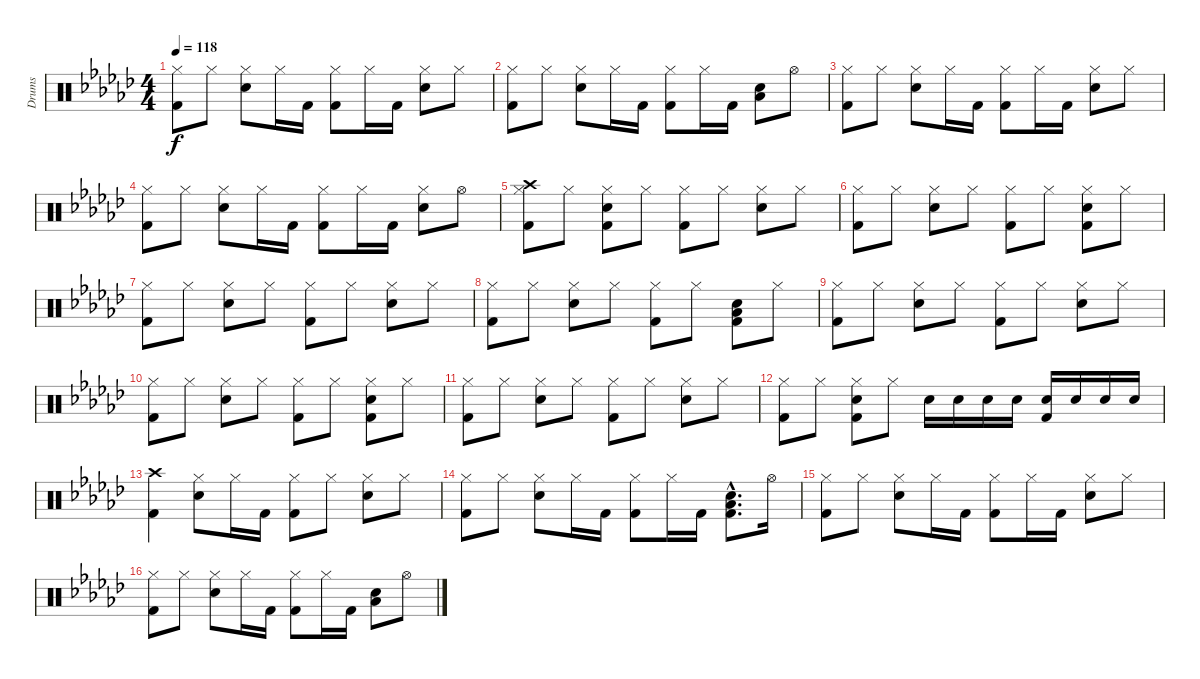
\track ("Drums" "Drums") {instrument percussion}
\staff {score}
\articulation defaults
\ts (4 4)
\tempo 118
\clef neutral
\ks ebminor
("Hi-Hat (closed)" "Kick (hit) 2").8{dy f} "Hi-Hat (closed)".8 ("Hi-Hat (closed)" "Electric Snare (hit)").8 "Hi-Hat (closed)".16 "Kick (hit) 2".16 ("Hi-Hat (closed)" "Kick (hit) 2").8 "Hi-Hat (closed)".16 "Kick (hit) 2".16 ("Hi-Hat (closed)" "Electric Snare (hit)").8 "Hi-Hat (closed)".8 |
("Hi-Hat (closed)" "Kick (hit) 2").8 "Hi-Hat (closed)".8 ("Hi-Hat (closed)" "Electric Snare (hit)").8 "Hi-Hat (closed)".16 "Kick (hit) 2".16 ("Hi-Hat (closed)" "Kick (hit) 2").8 "Hi-Hat (closed)".16 "Kick (hit) 2".16 ("Electric Snare (hit)" "Low Tom (hit)").8 "Hi-Hat (open)".8 |
("Hi-Hat (closed)" "Kick (hit) 2").8 "Hi-Hat (closed)".8 ("Hi-Hat (closed)" "Electric Snare (hit)").8 "Hi-Hat (closed)".16 "Kick (hit) 2".16 ("Hi-Hat (closed)" "Kick (hit) 2").8 "Hi-Hat (closed)".16 "Kick (hit) 2".16 ("Hi-Hat (closed)" "Electric Snare (hit)").8 "Hi-Hat (closed)".8 |
("Hi-Hat (closed)" "Kick (hit) 2").8 "Hi-Hat (closed)".8 ("Hi-Hat (closed)" "Electric Snare (hit)").8 "Hi-Hat (closed)".16 "Kick (hit) 2".16 ("Hi-Hat (closed)" "Kick (hit) 2").8 "Hi-Hat (closed)".16 "Kick (hit) 2".16 ("Hi-Hat (closed)" "Electric Snare (hit)").8 "Hi-Hat (open)".8 |
("Hi-Hat (closed)" "Crash high (hit)" "Kick (hit) 2").8 "Hi-Hat (closed)".8 ("Hi-Hat (closed)" "Electric Snare (hit)" "Kick (hit) 2").8 "Hi-Hat (closed)".8 ("Hi-Hat (closed)" "Kick (hit) 2").8 "Hi-Hat (closed)".8 ("Hi-Hat (closed)" "Electric Snare (hit)").8 "Hi-Hat (closed)".8 |
("Hi-Hat (closed)" "Kick (hit) 2").8 "Hi-Hat (closed)".8 ("Hi-Hat (closed)" "Electric Snare (hit)").8 "Hi-Hat (closed)".8 ("Hi-Hat (closed)" "Kick (hit) 2").8 "Hi-Hat (closed)".8 ("Hi-Hat (closed)" "Electric Snare (hit)" "Kick (hit) 2").8 "Hi-Hat (closed)".8 |
("Hi-Hat (closed)" "Kick (hit) 2").8 "Hi-Hat (closed)".8 ("Hi-Hat (closed)" "Electric Snare (hit)").8 "Hi-Hat (closed)".8 ("Hi-Hat (closed)" "Kick (hit) 2").8 "Hi-Hat (closed)".8 ("Hi-Hat (closed)" "Electric Snare (hit)").8 "Hi-Hat (closed)".8 |
("Hi-Hat (closed)" "Kick (hit) 2").8 "Hi-Hat (closed)".8 ("Hi-Hat (closed)" "Electric Snare (hit)").8 "Hi-Hat (closed)".8 ("Hi-Hat (closed)" "Kick (hit) 2").8 "Hi-Hat (closed)".8 ("Electric Snare (hit)" "Low Tom (hit)" "Kick (hit) 2").8 "Hi-Hat (closed)".8 |
("Hi-Hat (closed)" "Kick (hit) 2").8 "Hi-Hat (closed)".8 ("Hi-Hat (closed)" "Electric Snare (hit)").8 "Hi-Hat (closed)".8 ("Hi-Hat (closed)" "Kick (hit) 2").8 "Hi-Hat (closed)".8 ("Hi-Hat (closed)" "Electric Snare (hit)").8 "Hi-Hat (closed)".8 |
("Hi-Hat (closed)" "Kick (hit) 2").8 "Hi-Hat (closed)".8 ("Hi-Hat (closed)" "Electric Snare (hit)").8 "Hi-Hat (closed)".8 ("Hi-Hat (closed)" "Kick (hit) 2").8 "Hi-Hat (closed)".8 ("Hi-Hat (closed)" "Electric Snare (hit)" "Kick (hit) 2").8 "Hi-Hat (closed)".8 |
("Hi-Hat (closed)" "Kick (hit) 2").8 "Hi-Hat (closed)".8 ("Hi-Hat (closed)" "Electric Snare (hit)").8 "Hi-Hat (closed)".8 ("Hi-Hat (closed)" "Kick (hit) 2").8 "Hi-Hat (closed)".8 ("Hi-Hat (closed)" "Electric Snare (hit)").8 "Hi-Hat (closed)".8 |
("Hi-Hat (closed)" "Kick (hit) 2").8 "Hi-Hat (closed)".8 ("Hi-Hat (closed)" "Electric Snare (hit)" "Kick (hit) 2").8 "Hi-Hat (closed)".8 "Electric Snare (hit)".16 "Electric Snare (hit)".16 "Electric Snare (hit)".16 "Electric Snare (hit)".16 ("Electric Snare (hit)" "Kick (hit) 2").16 "Electric Snare (hit)".16 "Electric Snare (hit)".16 "Electric Snare (hit)".16 |
("Crash high (hit)" "Kick (hit) 2").4 ("Hi-Hat (closed)" "Electric Snare (hit)").8 "Hi-Hat (closed)".16 "Kick (hit) 2".16 ("Hi-Hat (closed)" "Kick (hit) 2").8 "Hi-Hat (closed)".8 ("Hi-Hat (closed)" "Electric Snare (hit)").8 "Hi-Hat (closed)".8 |
("Hi-Hat (closed)" "Kick (hit) 2").8 "Hi-Hat (closed)".8 ("Hi-Hat (closed)" "Electric Snare (hit)").8 "Hi-Hat (closed)".16 "Kick (hit) 2".16 ("Hi-Hat (closed)" "Kick (hit) 2").8 "Hi-Hat (closed)".16 "Kick (hit) 2".16 ("Electric Snare (hit)"{hac} "Low Tom (hit)"{hac} "Kick (hit) 2"{hac}).8{d} "Hi-Hat (open)".16 |
("Hi-Hat (closed)" "Kick (hit) 2").8 "Hi-Hat (closed)".8 ("Hi-Hat (closed)" "Electric Snare (hit)").8 "Hi-Hat (closed)".16 "Kick (hit) 2".16 ("Hi-Hat (closed)" "Kick (hit) 2").8 "Hi-Hat (closed)".16 "Kick (hit) 2".16 ("Hi-Hat (closed)" "Electric Snare (hit)").8 "Hi-Hat (closed)".8 |
("Hi-Hat (closed)" "Kick (hit) 2").8 "Hi-Hat (closed)".8 ("Hi-Hat (closed)" "Electric Snare (hit)").8 "Hi-Hat (closed)".16 "Kick (hit) 2".16 ("Hi-Hat (closed)" "Kick (hit) 2").8 "Hi-Hat (closed)".16 "Kick (hit) 2".16 ("Electric Snare (hit)" "Low Tom (hit)").8 "Hi-Hat (open)".8
